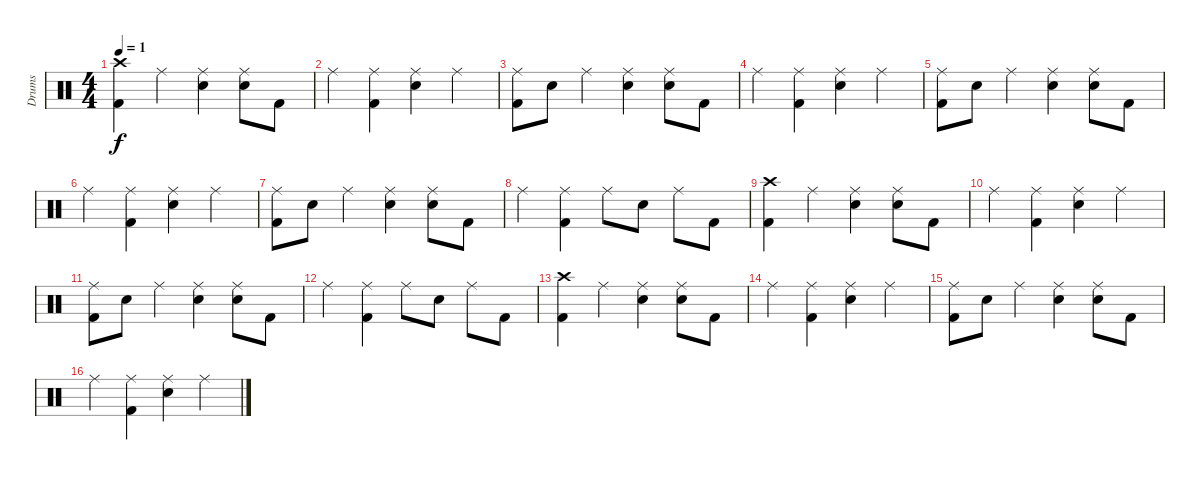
\track ("Drums" "Drums") {instrument percussion}
\staff {score}
\articulation defaults
\ts (4 4)
\tempo 1
\clef neutral
\ks c
("Crash high (hit)" "Kick (hit) 2").4{dy f} "Ride (middle)".4 ("Ride (middle)" "Snare (hit) 2").4 ("Ride (middle)" "Snare (hit) 2").8 "Kick (hit) 2".8 |
"Ride (middle)".4 ("Ride (middle)" "Kick (hit) 2").4 ("Ride (middle)" "Snare (hit) 2").4 "Ride (middle)".4 |
("Ride (middle)" "Kick (hit) 2").8 "Snare (hit) 2".8 "Ride (middle)".4 ("Ride (middle)" "Snare (hit) 2").4 ("Ride (middle)" "Snare (hit) 2").8 "Kick (hit) 2".8 |
"Ride (middle)".4 ("Ride (middle)" "Kick (hit) 2").4 ("Ride (middle)" "Snare (hit) 2").4 "Ride (middle)".4 |
("Ride (middle)" "Kick (hit) 2").8 "Snare (hit) 2".8 "Ride (middle)".4 ("Ride (middle)" "Snare (hit) 2").4 ("Ride (middle)" "Snare (hit) 2").8 "Kick (hit) 2".8 |
"Ride (middle)".4 ("Ride (middle)" "Kick (hit) 2").4 ("Ride (middle)" "Snare (hit) 2").4 "Ride (middle)".4 |
("Ride (middle)" "Kick (hit) 2").8 "Snare (hit) 2".8 "Ride (middle)".4 ("Ride (middle)" "Snare (hit) 2").4 ("Ride (middle)" "Snare (hit) 2").8 "Kick (hit) 2".8 |
"Ride (middle)".4 ("Ride (middle)" "Kick (hit) 2").4 "Ride (middle)".8 "Snare (hit) 2".8 "Ride (middle)".8 "Kick (hit) 2".8 |
("Crash high (hit)" "Kick (hit) 2").4 "Ride (middle)".4 ("Ride (middle)" "Snare (hit) 2").4 ("Ride (middle)" "Snare (hit) 2").8 "Kick (hit) 2".8 |
"Ride (middle)".4 ("Ride (middle)" "Kick (hit) 2").4 ("Ride (middle)" "Snare (hit) 2").4 "Ride (middle)".4 |
("Ride (middle)" "Kick (hit) 2").8 "Snare (hit) 2".8 "Ride (middle)".4 ("Ride (middle)" "Snare (hit) 2").4 ("Ride (middle)" "Snare (hit) 2").8 "Kick (hit) 2".8 |
"Ride (middle)".4 ("Ride (middle)" "Kick (hit) 2").4 "Ride (middle)".8 "Snare (hit) 2".8 "Ride (middle)".8 "Kick (hit) 2".8 |
("Crash high (hit)" "Kick (hit) 2").4 "Ride (middle)".4 ("Ride (middle)" "Snare (hit) 2").4 ("Ride (middle)" "Snare (hit) 2").8 "Kick (hit) 2".8 |
"Ride (middle)".4 ("Ride (middle)" "Kick (hit) 2").4 ("Ride (middle)" "Snare (hit) 2").4 "Ride (middle)".4 |
("Ride (middle)" "Kick (hit) 2").8 "Snare (hit) 2".8 "Ride (middle)".4 ("Ride (middle)" "Snare (hit) 2").4 ("Ride (middle)" "Snare (hit) 2").8 "Kick (hit) 2".8 |
"Ride (middle)".4 ("Ride (middle)" "Kick (hit) 2").4 ("Ride (middle)" "Snare (hit) 2").4 "Ride (middle)".4
